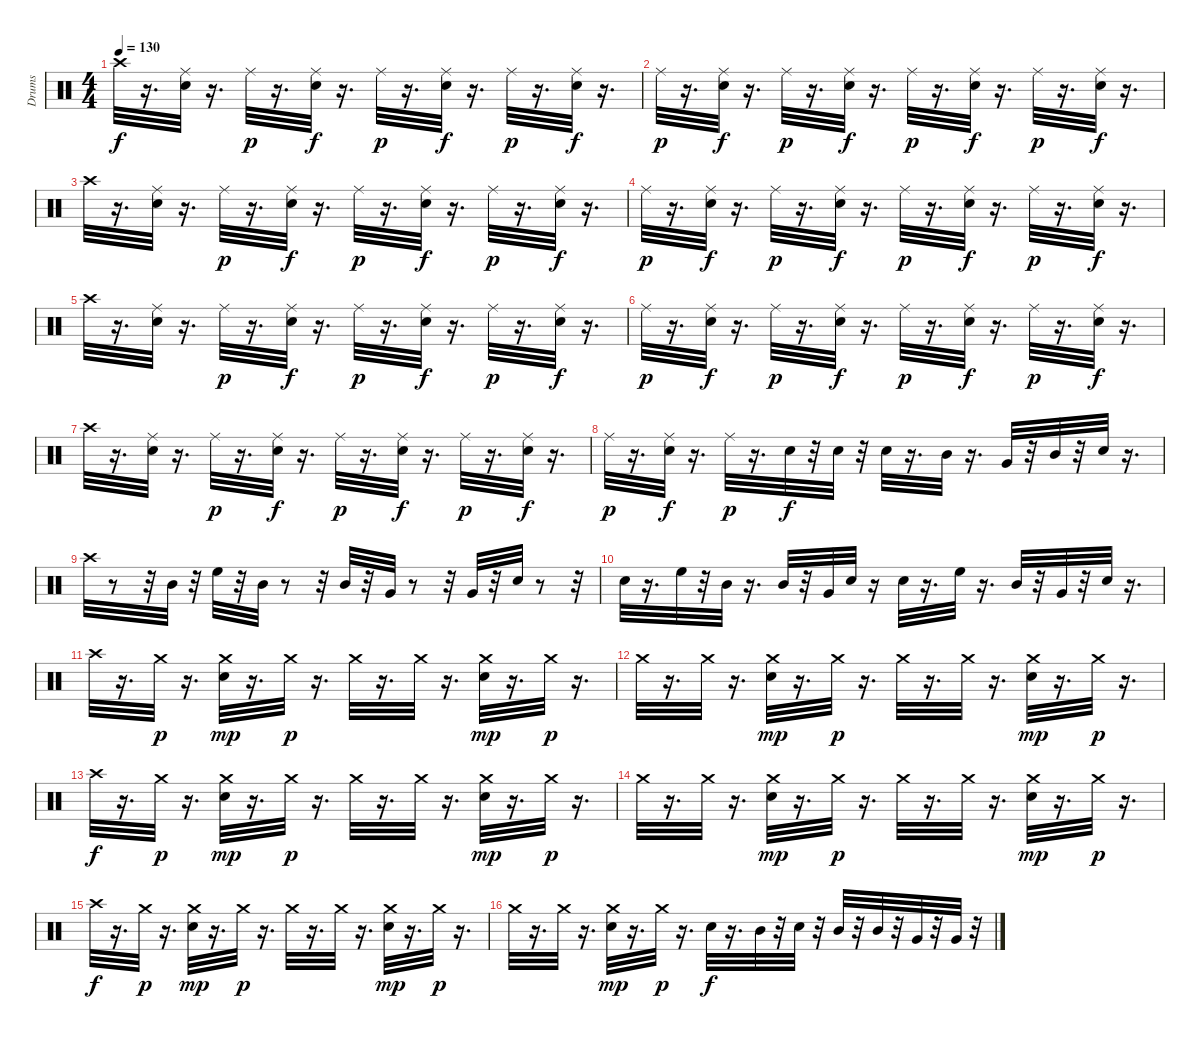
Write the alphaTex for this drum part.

\track ("Drums" "Drums") {instrument percussion}
\staff {score}
\articulation defaults
\ts (4 4)
\tempo 130
\clef neutral
\ks c "Crash high (hit)".32{dy f}
r.16{d} ("Snare (hit) 2" "Ride (middle)").32 r.16{d} "Ride (middle)".32{dy p} r.16{d} ("Snare (hit) 2" "Ride (middle)").32{dy f} r.16{d} "Ride (middle)".32{dy p} r.16{d} ("Snare (hit) 2" "Ride (middle)").32{dy f} r.16{d} "Ride (middle)".32{dy p} r.16{d} ("Snare (hit) 2" "Ride (middle)").32{dy f} r.16{d} |
"Ride (middle)".32{dy p} r.16{d} ("Snare (hit) 2" "Ride (middle)").32{dy f} r.16{d} "Ride (middle)".32{dy p} r.16{d} ("Snare (hit) 2" "Ride (middle)").32{dy f} r.16{d} "Ride (middle)".32{dy p} r.16{d} ("Snare (hit) 2" "Ride (middle)").32{dy f} r.16{d} "Ride (middle)".32{dy p} r.16{d} ("Snare (hit) 2" "Ride (middle)").32{dy f} r.16{d} |
"Crash high (hit)".32 r.16{d} ("Snare (hit) 2" "Ride (middle)").32 r.16{d} "Ride (middle)".32{dy p} r.16{d} ("Snare (hit) 2" "Ride (middle)").32{dy f} r.16{d} "Ride (middle)".32{dy p} r.16{d} ("Snare (hit) 2" "Ride (middle)").32{dy f} r.16{d} "Ride (middle)".32{dy p} r.16{d} ("Snare (hit) 2" "Ride (middle)").32{dy f} r.16{d} |
"Ride (middle)".32{dy p} r.16{d} ("Snare (hit) 2" "Ride (middle)").32{dy f} r.16{d} "Ride (middle)".32{dy p} r.16{d} ("Snare (hit) 2" "Ride (middle)").32{dy f} r.16{d} "Ride (middle)".32{dy p} r.16{d} ("Snare (hit) 2" "Ride (middle)").32{dy f} r.16{d} "Ride (middle)".32{dy p} r.16{d} ("Snare (hit) 2" "Ride (middle)").32{dy f} r.16{d} |
"Crash high (hit)".32 r.16{d} ("Snare (hit) 2" "Ride (middle)").32 r.16{d} "Ride (middle)".32{dy p} r.16{d} ("Snare (hit) 2" "Ride (middle)").32{dy f} r.16{d} "Ride (middle)".32{dy p} r.16{d} ("Snare (hit) 2" "Ride (middle)").32{dy f} r.16{d} "Ride (middle)".32{dy p} r.16{d} ("Snare (hit) 2" "Ride (middle)").32{dy f} r.16{d} |
"Ride (middle)".32{dy p} r.16{d} ("Snare (hit) 2" "Ride (middle)").32{dy f} r.16{d} "Ride (middle)".32{dy p} r.16{d} ("Snare (hit) 2" "Ride (middle)").32{dy f} r.16{d} "Ride (middle)".32{dy p} r.16{d} ("Snare (hit) 2" "Ride (middle)").32{dy f} r.16{d} "Ride (middle)".32{dy p} r.16{d} ("Snare (hit) 2" "Ride (middle)").32{dy f} r.16{d} |
"Crash high (hit)".32 r.16{d} ("Snare (hit) 2" "Ride (middle)").32 r.16{d} "Ride (middle)".32{dy p} r.16{d} ("Snare (hit) 2" "Ride (middle)").32{dy f} r.16{d} "Ride (middle)".32{dy p} r.16{d} ("Snare (hit) 2" "Ride (middle)").32{dy f} r.16{d} "Ride (middle)".32{dy p} r.16{d} ("Snare (hit) 2" "Ride (middle)").32{dy f} r.16{d} |
"Ride (middle)".32{dy p} r.16{d} ("Snare (hit) 2" "Ride (middle)").32{dy f} r.16{d} "Ride (middle)".32{dy p} r.16{d} "Snare (hit) 2".32{dy f} r.32 "Snare (hit) 2".32 r.32 "Snare (hit) 2".32 r.16{d} "Mid Tom (hit)".32 r.16{d} "Very Low Tom (hit)".32 r.32 "Mid Tom (hit)".32 r.32 "Snare (hit)".32 r.16{d} |
"Crash high (hit)".32 r.8 r.32 "Mid Tom (hit)".32 r.32 "High Floor Tom (hit)".32 r.32 "Mid Tom (hit)".32 r.8 r.32 "Mid Tom (hit)".32 r.32 "Very Low Tom (hit)".32 r.8 r.32 "Very Low Tom (hit)".32 r.32 "Snare (hit)".32 r.8 r.32 |
"Snare (hit) 2".32 r.16{d} "High Floor Tom (hit)".32 r.32 "Mid Tom (hit)".32 r.16{d} "Mid Tom (hit)".32 r.32 "Very Low Tom (hit)".32 "Snare (hit)".32 r.16 "Snare (hit) 2".32 r.16{d} "High Floor Tom (hit)".32 r.16{d} "Mid Tom (hit)".32 r.32 "Very Low Tom (hit)".32 r.32 "Snare (hit)".32 r.16{d} |
"Crash high (hit)".32 r.16{d} "Crash medium (hit)".32{dy p} r.16{d} ("Snare (hit) 2" "Crash medium (hit)").32{dy mp} r.16{d} "Crash medium (hit)".32{dy p} r.16{d} "Crash medium (hit)".32 r.16{d} "Crash medium (hit)".32 r.16{d} ("Snare (hit) 2" "Crash medium (hit)").32{dy mp} r.16{d} "Crash medium (hit)".32{dy p} r.16{d} |
"Crash medium (hit)".32 r.16{d} "Crash medium (hit)".32 r.16{d} ("Snare (hit) 2" "Crash medium (hit)").32{dy mp} r.16{d} "Crash medium (hit)".32{dy p} r.16{d} "Crash medium (hit)".32 r.16{d} "Crash medium (hit)".32 r.16{d} ("Snare (hit) 2" "Crash medium (hit)").32{dy mp} r.16{d} "Crash medium (hit)".32{dy p} r.16{d} |
"Crash high (hit)".32{dy f} r.16{d} "Crash medium (hit)".32{dy p} r.16{d} ("Snare (hit) 2" "Crash medium (hit)").32{dy mp} r.16{d} "Crash medium (hit)".32{dy p} r.16{d} "Crash medium (hit)".32 r.16{d} "Crash medium (hit)".32 r.16{d} ("Snare (hit) 2" "Crash medium (hit)").32{dy mp} r.16{d} "Crash medium (hit)".32{dy p} r.16{d} |
"Crash medium (hit)".32 r.16{d} "Crash medium (hit)".32 r.16{d} ("Snare (hit) 2" "Crash medium (hit)").32{dy mp} r.16{d} "Crash medium (hit)".32{dy p} r.16{d} "Crash medium (hit)".32 r.16{d} "Crash medium (hit)".32 r.16{d} ("Snare (hit) 2" "Crash medium (hit)").32{dy mp} r.16{d} "Crash medium (hit)".32{dy p} r.16{d} |
"Crash high (hit)".32{dy f} r.16{d} "Crash medium (hit)".32{dy p} r.16{d} ("Snare (hit) 2" "Crash medium (hit)").32{dy mp} r.16{d} "Crash medium (hit)".32{dy p} r.16{d} "Crash medium (hit)".32 r.16{d} "Crash medium (hit)".32 r.16{d} ("Snare (hit) 2" "Crash medium (hit)").32{dy mp} r.16{d} "Crash medium (hit)".32{dy p} r.16{d} |
"Crash medium (hit)".32 r.16{d} "Crash medium (hit)".32 r.16{d} ("Snare (hit) 2" "Crash medium (hit)").32{dy mp} r.16{d} "Crash medium (hit)".32{dy p} r.16{d} "Snare (hit) 2".32{dy f} r.16{d} "Mid Tom (hit)".32 r.32 "Snare (hit) 2".32 r.32 "Mid Tom (hit)".32 r.32 "Mid Tom (hit)".32 r.32 "Very Low Tom (hit)".32 r.32 "Very Low Tom (hit)".32 r.32
